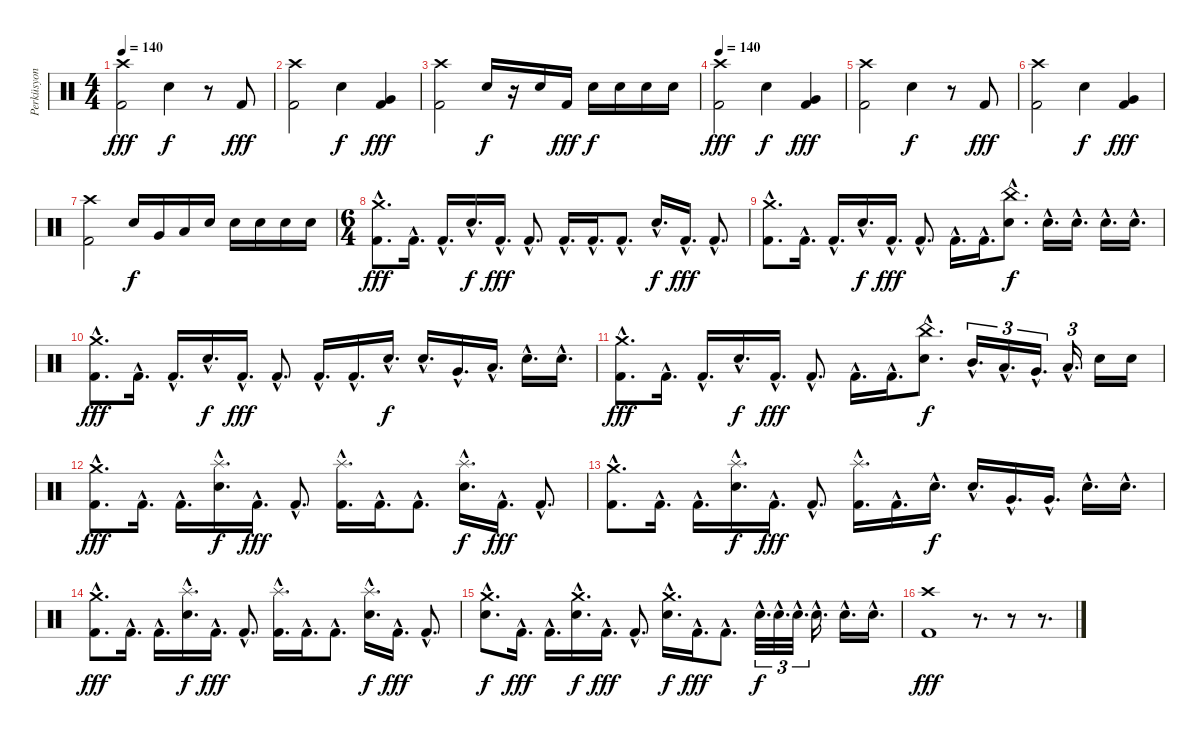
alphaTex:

\track ("Perküsyon" "Perküsyon") {instrument percussion}
\staff {score}
\articulation defaults
\ts (4 4)
\tempo 140
\clef neutral
\ks c
("Crash high (hit)" "Kick (hit) 2").2{dy fff} "Electric Snare (hit)".4{dy f} r.8 "Kick (hit) 2".8{dy fff} |
("Crash high (hit)" "Kick (hit) 2").2 "Electric Snare (hit)".4{dy f} ("Very Low Tom (hit)" "Kick (hit) 2").4{dy fff} |
("Crash high (hit)" "Kick (hit) 2").2 "Electric Snare (hit)".16{dy f} r.16 "Electric Snare (hit)".16 "Kick (hit) 2".16{dy fff} "Electric Snare (hit)".16{dy f} "Electric Snare (hit)".16 "Electric Snare (hit)".16 "Electric Snare (hit)".16 |
\tempo 140
("Crash high (hit)" "Kick (hit) 2").2{dy fff} "Electric Snare (hit)".4{dy f} ("Very Low Tom (hit)" "Kick (hit) 2").4{dy fff} |
("Crash high (hit)" "Kick (hit) 2").2 "Electric Snare (hit)".4{dy f} r.8 "Kick (hit) 2".8{dy fff} |
("Crash high (hit)" "Kick (hit) 2").2 "Electric Snare (hit)".4{dy f} ("Very Low Tom (hit)" "Kick (hit) 2").4{dy fff} |
("Crash high (hit)" "Kick (hit) 2").2 "Electric Snare (hit)".16{dy f} "Very Low Tom (hit)".16 "Low Floor Tom (hit)".16 "Electric Snare (hit)".16 "Electric Snare (hit)".16 "Electric Snare (hit)".16 "Electric Snare (hit)".16 "Electric Snare (hit)".16 |
\ts (6 4)
("Crash medium (hit)"{hac} "Kick (hit) 2"{hac}).8{d dy fff} "Kick (hit) 2"{hac}.16{d} "Kick (hit) 2"{hac}.16{d} "Electric Snare (hit)"{hac}.16{d dy f} "Kick (hit) 2"{hac}.16{d dy fff} "Kick (hit) 2"{hac}.8{d} "Kick (hit) 2"{hac}.16{d} "Kick (hit) 2"{hac}.16{d} "Kick (hit) 2"{hac}.8{d} "Electric Snare (hit)"{hac}.16{d dy f} "Kick (hit) 2"{hac}.16{d dy fff} "Kick (hit) 2"{hac}.8{d} |
("Crash medium (hit)"{hac} "Kick (hit) 2"{hac}).8{d} "Kick (hit) 2"{hac}.16{d} "Kick (hit) 2"{hac}.16{d} "Electric Snare (hit)"{hac}.16{d dy f} "Kick (hit) 2"{hac}.16{d dy fff} "Kick (hit) 2"{hac}.8{d} "Kick (hit) 2"{hac}.16{d} "Kick (hit) 2"{hac}.16{d} ("China (hit)"{hac} "Electric Snare (hit)"{hac}).8{d dy f} "Electric Snare (hit)"{hac}.16{d} "Electric Snare (hit)"{hac}.16{d} "Electric Snare (hit)"{hac}.16{d} "Electric Snare (hit)"{hac}.16{d} |
("Crash medium (hit)"{hac} "Kick (hit) 2"{hac}).8{d dy fff} "Kick (hit) 2"{hac}.16{d} "Kick (hit) 2"{hac}.16{d} "Electric Snare (hit)"{hac}.16{d dy f} "Kick (hit) 2"{hac}.16{d dy fff} "Kick (hit) 2"{hac}.8{d} "Kick (hit) 2"{hac}.16{d} "Kick (hit) 2"{hac}.16{d} "Electric Snare (hit)"{hac}.16{d dy f} "Electric Snare (hit)"{hac}.16{d} "Very Low Tom (hit)"{hac}.16{d} "Low Floor Tom (hit)"{hac}.16{d} "Electric Snare (hit)"{hac}.16{d} "Electric Snare (hit)"{hac}.16{d} |
("Crash medium (hit)"{hac} "Kick (hit) 2"{hac}).8{d dy fff} "Kick (hit) 2"{hac}.16{d} "Kick (hit) 2"{hac}.16{d} "Electric Snare (hit)"{hac}.16{d dy f} "Kick (hit) 2"{hac}.16{d dy fff} "Kick (hit) 2"{hac}.8{d} "Kick (hit) 2"{hac}.16{d} "Kick (hit) 2"{hac}.16{d} ("China (hit)"{hac} "Electric Snare (hit)"{hac}).8{d dy f} "Mid Tom (hit)"{hac}.16{d tu (3 2)} "Low Tom (hit)"{hac}.16{d tu (3 2)} "Very Low Tom (hit)"{hac}.16{d tu (3 2)} "Low Floor Tom (hit)"{hac}.16{d tu (3 2)} "Electric Snare (hit)".16 "Electric Snare (hit)".16 |
("Crash medium (hit)"{hac} "Kick (hit) 2"{hac}).8{d dy fff} "Kick (hit) 2"{hac}.16{d} "Kick (hit) 2"{hac}.16{d} ("Splash (hit)"{hac} "Electric Snare (hit)"{hac}).16{d dy f} "Kick (hit) 2"{hac}.16{d dy fff} "Kick (hit) 2"{hac}.8{d} ("Splash (hit)"{hac} "Kick (hit) 2"{hac}).16{d} "Kick (hit) 2"{hac}.16{d} "Kick (hit) 2"{hac}.8{d} ("Splash (hit)"{hac} "Electric Snare (hit)"{hac}).16{d dy f} "Kick (hit) 2"{hac}.16{d dy fff} "Kick (hit) 2"{hac}.8{d} |
("Crash medium (hit)"{hac} "Kick (hit) 2"{hac}).8{d} "Kick (hit) 2"{hac}.16{d} "Kick (hit) 2"{hac}.16{d} ("Splash (hit)"{hac} "Electric Snare (hit)"{hac}).16{d dy f} "Kick (hit) 2"{hac}.16{d dy fff} "Kick (hit) 2"{hac}.8{d} ("Splash (hit)"{hac} "Kick (hit) 2"{hac}).16{d} "Kick (hit) 2"{hac}.16{d} "Electric Snare (hit)"{hac}.16{d dy f} "Electric Snare (hit)"{hac}.16{d} "Very Low Tom (hit)"{hac}.16{d} "Very Low Tom (hit)"{hac}.16{d} "Electric Snare (hit)"{hac}.16{d} "Electric Snare (hit)"{hac}.16{d} |
("Crash medium (hit)"{hac} "Kick (hit) 2"{hac}).8{d dy fff} "Kick (hit) 2"{hac}.16{d} "Kick (hit) 2"{hac}.16{d} ("Splash (hit)"{hac} "Electric Snare (hit)"{hac}).16{d dy f} "Kick (hit) 2"{hac}.16{d dy fff} "Kick (hit) 2"{hac}.8{d} ("Splash (hit)"{hac} "Kick (hit) 2"{hac}).16{d} "Kick (hit) 2"{hac}.16{d} "Kick (hit) 2"{hac}.8{d} ("Splash (hit)"{hac} "Electric Snare (hit)"{hac}).16{d dy f} "Kick (hit) 2"{hac}.16{d dy fff} "Kick (hit) 2"{hac}.8{d} |
("Crash medium (hit)"{hac} "Electric Snare (hit)"{hac}).8{d dy f} "Kick (hit) 2"{hac}.16{d dy fff} "Kick (hit) 2"{hac}.16{d} ("Crash medium (hit)"{hac} "Electric Snare (hit)"{hac}).16{d dy f} "Kick (hit) 2"{hac}.16{d dy fff} "Kick (hit) 2"{hac}.8{d} ("Crash medium (hit)"{hac} "Electric Snare (hit)"{hac}).16{d dy f} "Kick (hit) 2"{hac}.16{d dy fff} "Kick (hit) 2"{hac}.8{d} "Electric Snare (hit)"{hac}.32{d tu (3 2) dy f} "Electric Snare (hit)"{hac}.32{d tu (3 2)} "Electric Snare (hit)"{hac}.32{d tu (3 2)} "Electric Snare (hit)"{hac}.16{d} "Electric Snare (hit)"{hac}.16{d} "Electric Snare (hit)"{hac}.16{d} |
("Crash high (hit)" "Kick (hit) 2").1{dy fff} r.8{d} r.8 r.8{d}
